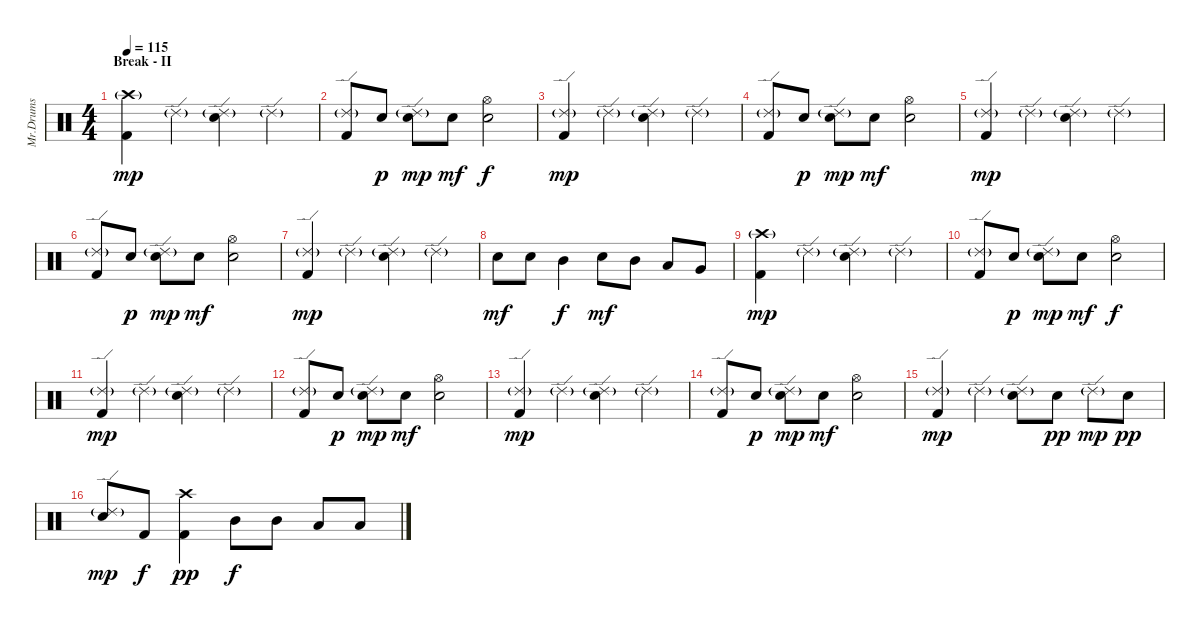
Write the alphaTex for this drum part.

\track ("Mr.Drums" "Mr.Drums") {instrument percussion}
\staff {score}
\articulation defaults
\ts (4 4)
\section ("" "Break - II")
\tempo 115
\clef neutral
\ks c
("Crash high (hit)"{g} "Kick (hit) 2").4{dy mp} "Ride (edge) 2"{g}.4 ("Ride (edge) 2"{g} "Electric Snare (hit)").4 "Ride (edge) 2"{g}.4 |
("Ride (edge) 2"{g} "Kick (hit) 2").8 "Electric Snare (hit)".8{dy p} ("Ride (edge) 2"{g} "Electric Snare (hit)").8{dy mp} "Electric Snare (hit)".8{dy mf} ("Hi-Hat (open)" "Electric Snare (hit)").2{dy f} |
("Ride (edge) 2"{g} "Kick (hit) 2").4{dy mp} "Ride (edge) 2"{g}.4 ("Ride (edge) 2"{g} "Electric Snare (hit)").4 "Ride (edge) 2"{g}.4 |
("Ride (edge) 2"{g} "Kick (hit) 2").8 "Electric Snare (hit)".8{dy p} ("Ride (edge) 2"{g} "Electric Snare (hit)").8{dy mp} "Electric Snare (hit)".8{dy mf} ("Hi-Hat (open)" "Electric Snare (hit)").2 |
("Ride (edge) 2"{g} "Kick (hit) 2").4{dy mp} "Ride (edge) 2"{g}.4 ("Ride (edge) 2"{g} "Electric Snare (hit)").4 "Ride (edge) 2"{g}.4 |
("Ride (edge) 2"{g} "Kick (hit) 2").8 "Electric Snare (hit)".8{dy p} ("Ride (edge) 2"{g} "Electric Snare (hit)").8{dy mp} "Electric Snare (hit)".8{dy mf} ("Hi-Hat (open)" "Electric Snare (hit)").2 |
("Ride (edge) 2"{g} "Kick (hit) 2").4{dy mp} "Ride (edge) 2"{g}.4 ("Ride (edge) 2"{g} "Electric Snare (hit)").4 "Ride (edge) 2"{g}.4 |
"Electric Snare (hit)".8{dy mf} "Electric Snare (hit)".8 "Mid Tom (hit)".4{dy f} "Electric Snare (hit)".8{dy mf} "Mid Tom (hit)".8 "Low Tom (hit)".8 "Very Low Tom (hit)".8 |
("Crash high (hit)"{g} "Kick (hit) 2").4{dy mp} "Ride (edge) 2"{g}.4 ("Ride (edge) 2"{g} "Electric Snare (hit)").4 "Ride (edge) 2"{g}.4 |
("Ride (edge) 2"{g} "Kick (hit) 2").8 "Electric Snare (hit)".8{dy p} ("Ride (edge) 2"{g} "Electric Snare (hit)").8{dy mp} "Electric Snare (hit)".8{dy mf} ("Hi-Hat (open)" "Electric Snare (hit)").2{dy f} |
("Ride (edge) 2"{g} "Kick (hit) 2").4{dy mp} "Ride (edge) 2"{g}.4 ("Ride (edge) 2"{g} "Electric Snare (hit)").4 "Ride (edge) 2"{g}.4 |
("Ride (edge) 2"{g} "Kick (hit) 2").8 "Electric Snare (hit)".8{dy p} ("Ride (edge) 2"{g} "Electric Snare (hit)").8{dy mp} "Electric Snare (hit)".8{dy mf} ("Hi-Hat (open)" "Electric Snare (hit)").2 |
("Ride (edge) 2"{g} "Kick (hit) 2").4{dy mp} "Ride (edge) 2"{g}.4 ("Ride (edge) 2"{g} "Electric Snare (hit)").4 "Ride (edge) 2"{g}.4 |
("Ride (edge) 2"{g} "Kick (hit) 2").8 "Electric Snare (hit)".8{dy p} ("Ride (edge) 2"{g} "Electric Snare (hit)").8{dy mp} "Electric Snare (hit)".8{dy mf} ("Hi-Hat (open)" "Electric Snare (hit)").2 |
("Ride (edge) 2"{g} "Kick (hit) 2").4{dy mp} "Ride (edge) 2"{g}.4 ("Ride (edge) 2"{g} "Electric Snare (hit)").8 "Electric Snare (hit)".8{dy pp} "Ride (edge) 2"{g}.8{dy mp} "Electric Snare (hit)".8{dy pp} |
("Ride (edge) 2"{g} "Electric Snare (hit)").8{dy mp} "Kick (hit) 2".8{dy f} ("Crash high (hit)" "Kick (hit) 2").4{dy pp} "Mid Tom (hit)".8{dy f} "Mid Tom (hit)".8 "Low Tom (hit)".8 "Low Tom (hit)".8
